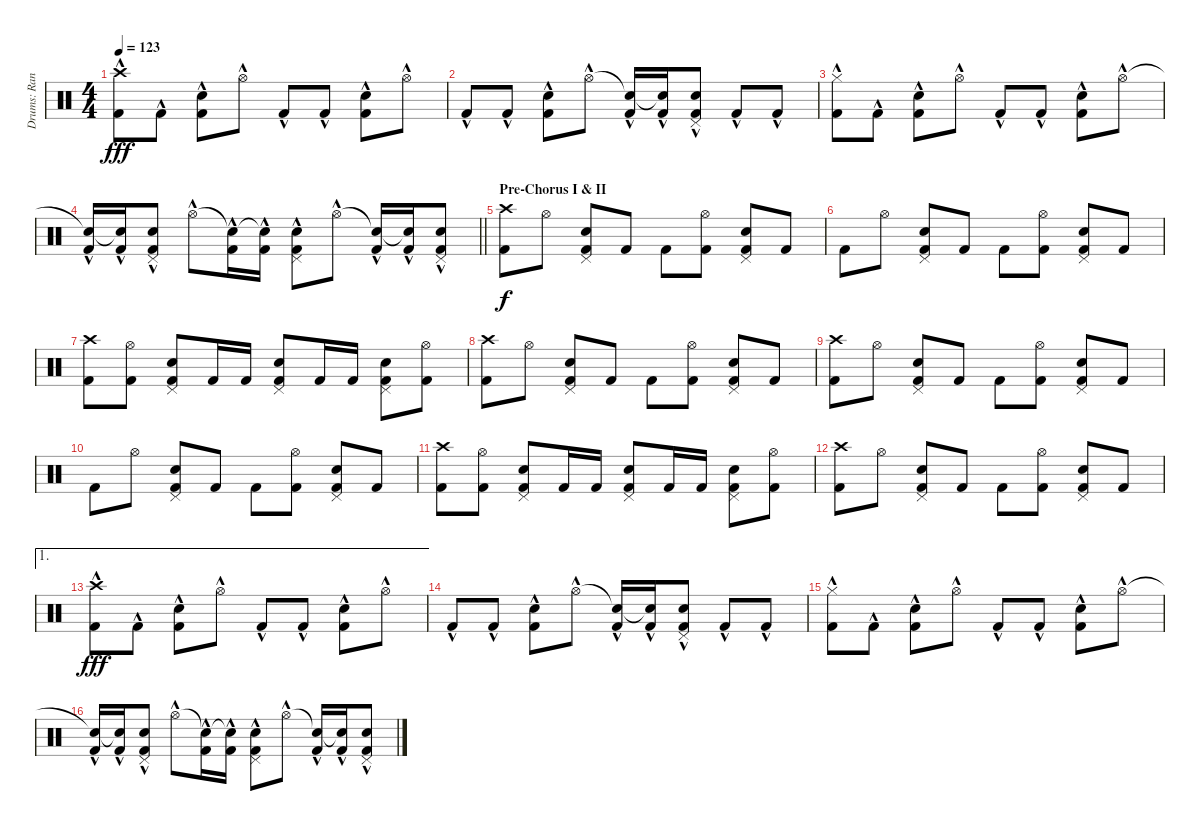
\track ("Drums: Randy" "Drums: Ran") {instrument percussion}
\staff {score}
\articulation defaults
\ts (4 4)
\tempo 123
\clef neutral
\ks c
("Crash high (hit)"{hac} "Kick (hit) 2"{hac}).8{dy fff} "Kick (hit) 2"{hac}.8 ("Snare (hit) 2"{hac} "Kick (hit) 2"{hac}).8 "Hi-Hat (open)"{hac}.8 "Kick (hit) 2"{hac}.8 "Kick (hit) 2"{hac}.8 ("Snare (hit) 2"{hac} "Kick (hit) 2"{hac}).8 "Hi-Hat (open)"{hac}.8 |
"Kick (hit) 2"{hac}.8 "Kick (hit) 2"{hac}.8 ("Snare (hit) 2"{hac} "Kick (hit) 2"{hac}).8 "Hi-Hat (open)"{hac}.8 ("Snare (hit)"{t} "Kick (hit) 2"{hac}).16 ("Snare (hit)"{t} "Kick (hit) 2"{hac}).16 ("Pedal Hi-Hat (hit)"{hac} "Snare (hit) 2"{hac} "Kick (hit) 2"{hac}).8 "Kick (hit) 2"{hac}.8 "Kick (hit) 2"{hac}.8 |
("Hi-Hat (closed)"{hac} "Kick (hit) 2"{hac}).8 "Kick (hit) 2"{hac}.8 ("Snare (hit) 2"{hac} "Kick (hit) 2"{hac}).8 "Hi-Hat (open)"{hac}.8 "Kick (hit) 2"{hac}.8 "Kick (hit) 2"{hac}.8 ("Snare (hit) 2"{hac} "Kick (hit) 2"{hac}).8 "Hi-Hat (open)"{hac}.8 |
\barLineRight lightlight
("Snare (hit)"{t} "Kick (hit) 2"{hac}).16 ("Snare (hit)"{t} "Kick (hit) 2"{hac}).16 ("Pedal Hi-Hat (hit)"{hac} "Snare (hit) 2"{hac} "Kick (hit) 2"{hac}).8 "Hi-Hat (open)"{hac}.8 ("Snare (hit)"{t} "Kick (hit) 2"{hac}).16 ("Snare (hit)"{t} "Kick (hit) 2"{hac}).16 ("Pedal Hi-Hat (hit)"{hac} "Snare (hit) 2"{hac} "Kick (hit) 2"{hac}).8 "Hi-Hat (open)"{hac}.8 ("Snare (hit)"{t} "Kick (hit) 2"{hac}).16 ("Snare (hit)"{t} "Kick (hit) 2"{hac}).16 ("Pedal Hi-Hat (hit)"{hac} "Snare (hit) 2"{hac} "Kick (hit) 2"{hac}).8 |
\section ("" "Pre-Chorus I & II")
("Crash high (hit)" "Kick (hit) 2").8{dy f} "Hi-Hat (open)".8 ("Pedal Hi-Hat (hit)" "Snare (hit) 2" "Kick (hit) 2").8 "Kick (hit) 2".8 "Kick (hit) 2".8 ("Hi-Hat (open)" "Kick (hit) 2").8 ("Pedal Hi-Hat (hit)" "Snare (hit) 2" "Kick (hit) 2").8 "Kick (hit) 2".8 |
"Kick (hit) 2".8 "Hi-Hat (open)".8 ("Pedal Hi-Hat (hit)" "Snare (hit) 2" "Kick (hit) 2").8 "Kick (hit) 2".8 "Kick (hit) 2".8 ("Hi-Hat (open)" "Kick (hit) 2").8 ("Pedal Hi-Hat (hit)" "Snare (hit) 2" "Kick (hit) 2").8 "Kick (hit) 2".8 |
("Crash high (hit)" "Kick (hit) 2").8 ("Hi-Hat (open)" "Kick (hit) 2").8 ("Pedal Hi-Hat (hit)" "Snare (hit) 2" "Kick (hit) 2").8 "Kick (hit) 2".16 "Kick (hit) 2".16 ("Pedal Hi-Hat (hit)" "Snare (hit) 2" "Kick (hit) 2").8 "Kick (hit) 2".16 "Kick (hit) 2".16 ("Pedal Hi-Hat (hit)" "Snare (hit) 2" "Kick (hit) 2").8 ("Hi-Hat (open)" "Kick (hit) 2").8 |
("Crash high (hit)" "Kick (hit) 2").8 "Hi-Hat (open)".8 ("Pedal Hi-Hat (hit)" "Snare (hit) 2" "Kick (hit) 2").8 "Kick (hit) 2".8 "Kick (hit) 2".8 ("Hi-Hat (open)" "Kick (hit) 2").8 ("Pedal Hi-Hat (hit)" "Snare (hit) 2" "Kick (hit) 2").8 "Kick (hit) 2".8 |
("Crash high (hit)" "Kick (hit) 2").8 "Hi-Hat (open)".8 ("Pedal Hi-Hat (hit)" "Snare (hit) 2" "Kick (hit) 2").8 "Kick (hit) 2".8 "Kick (hit) 2".8 ("Hi-Hat (open)" "Kick (hit) 2").8 ("Pedal Hi-Hat (hit)" "Snare (hit) 2" "Kick (hit) 2").8 "Kick (hit) 2".8 |
"Kick (hit) 2".8 "Hi-Hat (open)".8 ("Pedal Hi-Hat (hit)" "Snare (hit) 2" "Kick (hit) 2").8 "Kick (hit) 2".8 "Kick (hit) 2".8 ("Hi-Hat (open)" "Kick (hit) 2").8 ("Pedal Hi-Hat (hit)" "Snare (hit) 2" "Kick (hit) 2").8 "Kick (hit) 2".8 |
("Crash high (hit)" "Kick (hit) 2").8 ("Hi-Hat (open)" "Kick (hit) 2").8 ("Pedal Hi-Hat (hit)" "Snare (hit) 2" "Kick (hit) 2").8 "Kick (hit) 2".16 "Kick (hit) 2".16 ("Pedal Hi-Hat (hit)" "Snare (hit) 2" "Kick (hit) 2").8 "Kick (hit) 2".16 "Kick (hit) 2".16 ("Pedal Hi-Hat (hit)" "Snare (hit) 2" "Kick (hit) 2").8 ("Hi-Hat (open)" "Kick (hit) 2").8 |
("Crash high (hit)" "Kick (hit) 2").8 "Hi-Hat (open)".8 ("Pedal Hi-Hat (hit)" "Snare (hit) 2" "Kick (hit) 2").8 "Kick (hit) 2".8 "Kick (hit) 2".8 ("Hi-Hat (open)" "Kick (hit) 2").8 ("Pedal Hi-Hat (hit)" "Snare (hit) 2" "Kick (hit) 2").8 "Kick (hit) 2".8 |
\ae 1
("Crash high (hit)"{hac} "Kick (hit) 2"{hac}).8{dy fff} "Kick (hit) 2"{hac}.8 ("Snare (hit) 2"{hac} "Kick (hit) 2"{hac}).8 "Hi-Hat (open)"{hac}.8 "Kick (hit) 2"{hac}.8 "Kick (hit) 2"{hac}.8 ("Snare (hit) 2"{hac} "Kick (hit) 2"{hac}).8 "Hi-Hat (open)"{hac}.8 |
"Kick (hit) 2"{hac}.8 "Kick (hit) 2"{hac}.8 ("Snare (hit) 2"{hac} "Kick (hit) 2"{hac}).8 "Hi-Hat (open)"{hac}.8 ("Snare (hit)"{t} "Kick (hit) 2"{hac}).16 ("Snare (hit)"{t} "Kick (hit) 2"{hac}).16 ("Pedal Hi-Hat (hit)"{hac} "Snare (hit) 2"{hac} "Kick (hit) 2"{hac}).8 "Kick (hit) 2"{hac}.8 "Kick (hit) 2"{hac}.8 |
("Hi-Hat (closed)"{hac} "Kick (hit) 2"{hac}).8 "Kick (hit) 2"{hac}.8 ("Snare (hit) 2"{hac} "Kick (hit) 2"{hac}).8 "Hi-Hat (open)"{hac}.8 "Kick (hit) 2"{hac}.8 "Kick (hit) 2"{hac}.8 ("Snare (hit) 2"{hac} "Kick (hit) 2"{hac}).8 "Hi-Hat (open)"{hac}.8 |
("Snare (hit)"{t} "Kick (hit) 2"{hac}).16 ("Snare (hit)"{t} "Kick (hit) 2"{hac}).16 ("Pedal Hi-Hat (hit)"{hac} "Snare (hit) 2"{hac} "Kick (hit) 2"{hac}).8 "Hi-Hat (open)"{hac}.8 ("Snare (hit)"{t} "Kick (hit) 2"{hac}).16 ("Snare (hit)"{t} "Kick (hit) 2"{hac}).16 ("Pedal Hi-Hat (hit)"{hac} "Snare (hit) 2"{hac} "Kick (hit) 2"{hac}).8 "Hi-Hat (open)"{hac}.8 ("Snare (hit)"{t} "Kick (hit) 2"{hac}).16 ("Snare (hit)"{t} "Kick (hit) 2"{hac}).16 ("Pedal Hi-Hat (hit)"{hac} "Snare (hit) 2"{hac} "Kick (hit) 2"{hac}).8
